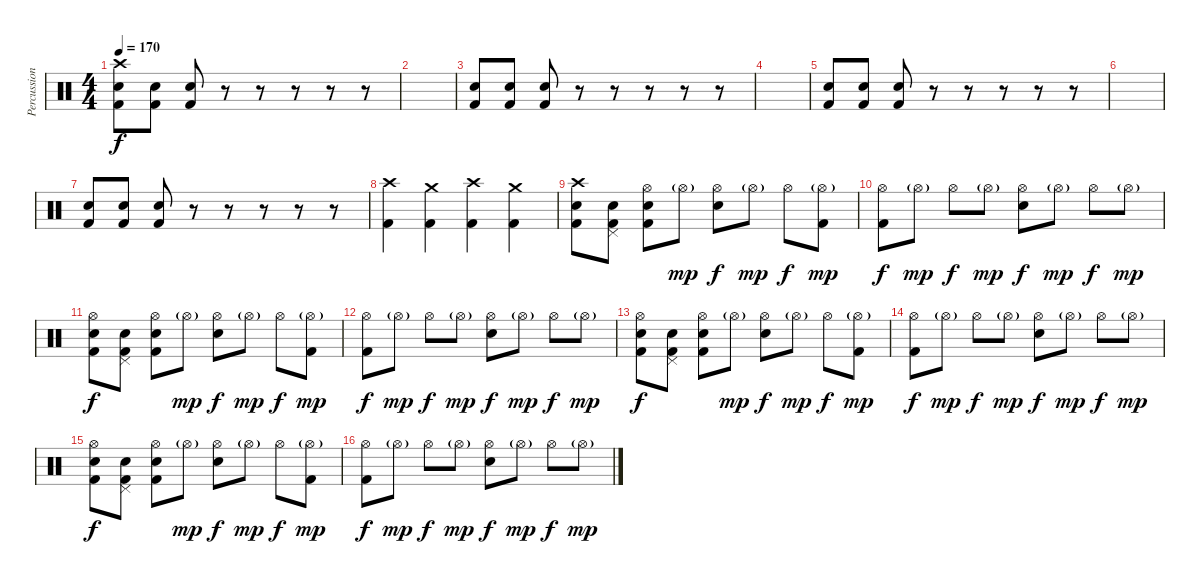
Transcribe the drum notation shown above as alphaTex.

\track ("Percussion" "Percussion") {instrument percussion}
\staff {score}
\articulation defaults
\ts (4 4)
\tempo 170
\clef neutral
\ks c
("Crash high (hit)" "Kick (hit) 2" "Electric Snare (hit)").8{dy f} ("Kick (hit) 2" "Electric Snare (hit)").8 ("Kick (hit) 2" "Electric Snare (hit)").8 r.8 r.8 r.8 r.8 r.8 |
|
("Kick (hit) 2" "Electric Snare (hit)").8 ("Kick (hit) 2" "Electric Snare (hit)").8 ("Kick (hit) 2" "Electric Snare (hit)").8 r.8 r.8 r.8 r.8 r.8 |
|
("Kick (hit) 2" "Electric Snare (hit)").8 ("Kick (hit) 2" "Electric Snare (hit)").8 ("Kick (hit) 2" "Electric Snare (hit)").8 r.8 r.8 r.8 r.8 r.8 |
|
("Kick (hit) 2" "Electric Snare (hit)").8 ("Kick (hit) 2" "Electric Snare (hit)").8 ("Kick (hit) 2" "Electric Snare (hit)").8 r.8 r.8 r.8 r.8 r.8 |
("Crash high (hit)" "Kick (hit) 2").4 ("Crash medium (hit)" "Kick (hit) 2").4 ("Crash high (hit)" "Kick (hit) 2").4 ("Crash medium (hit)" "Kick (hit) 2").4 |
("Crash high (hit)" "Kick (hit) 2" "Electric Snare (hit)").8 ("Pedal Hi-Hat (hit)" "Kick (hit) 2" "Electric Snare (hit)").8 ("Hi-Hat (open)" "Kick (hit) 2" "Electric Snare (hit)").8 "Hi-Hat (open)"{g}.8{dy mp} ("Hi-Hat (open)" "Electric Snare (hit)").8{dy f} "Hi-Hat (open)"{g}.8{dy mp} "Hi-Hat (open)".8{dy f} ("Hi-Hat (open)"{g} "Kick (hit) 2").8{dy mp} |
("Hi-Hat (open)" "Kick (hit) 2").8{dy f} "Hi-Hat (open)"{g}.8{dy mp} "Hi-Hat (open)".8{dy f} "Hi-Hat (open)"{g}.8{dy mp} ("Hi-Hat (open)" "Electric Snare (hit)").8{dy f} "Hi-Hat (open)"{g}.8{dy mp} "Hi-Hat (open)".8{dy f} "Hi-Hat (open)"{g}.8{dy mp} |
("Hi-Hat (open)" "Kick (hit) 2" "Electric Snare (hit)").8{dy f} ("Pedal Hi-Hat (hit)" "Kick (hit) 2" "Electric Snare (hit)").8 ("Hi-Hat (open)" "Kick (hit) 2" "Electric Snare (hit)").8 "Hi-Hat (open)"{g}.8{dy mp} ("Hi-Hat (open)" "Electric Snare (hit)").8{dy f} "Hi-Hat (open)"{g}.8{dy mp} "Hi-Hat (open)".8{dy f} ("Hi-Hat (open)"{g} "Kick (hit) 2").8{dy mp} |
("Hi-Hat (open)" "Kick (hit) 2").8{dy f} "Hi-Hat (open)"{g}.8{dy mp} "Hi-Hat (open)".8{dy f} "Hi-Hat (open)"{g}.8{dy mp} ("Hi-Hat (open)" "Electric Snare (hit)").8{dy f} "Hi-Hat (open)"{g}.8{dy mp} "Hi-Hat (open)".8{dy f} "Hi-Hat (open)"{g}.8{dy mp} |
("Hi-Hat (open)" "Kick (hit) 2" "Electric Snare (hit)").8{dy f} ("Pedal Hi-Hat (hit)" "Kick (hit) 2" "Electric Snare (hit)").8 ("Hi-Hat (open)" "Kick (hit) 2" "Electric Snare (hit)").8 "Hi-Hat (open)"{g}.8{dy mp} ("Hi-Hat (open)" "Electric Snare (hit)").8{dy f} "Hi-Hat (open)"{g}.8{dy mp} "Hi-Hat (open)".8{dy f} ("Hi-Hat (open)"{g} "Kick (hit) 2").8{dy mp} |
("Hi-Hat (open)" "Kick (hit) 2").8{dy f} "Hi-Hat (open)"{g}.8{dy mp} "Hi-Hat (open)".8{dy f} "Hi-Hat (open)"{g}.8{dy mp} ("Hi-Hat (open)" "Electric Snare (hit)").8{dy f} "Hi-Hat (open)"{g}.8{dy mp} "Hi-Hat (open)".8{dy f} "Hi-Hat (open)"{g}.8{dy mp} |
("Hi-Hat (open)" "Kick (hit) 2" "Electric Snare (hit)").8{dy f} ("Pedal Hi-Hat (hit)" "Kick (hit) 2" "Electric Snare (hit)").8 ("Hi-Hat (open)" "Kick (hit) 2" "Electric Snare (hit)").8 "Hi-Hat (open)"{g}.8{dy mp} ("Hi-Hat (open)" "Electric Snare (hit)").8{dy f} "Hi-Hat (open)"{g}.8{dy mp} "Hi-Hat (open)".8{dy f} ("Hi-Hat (open)"{g} "Kick (hit) 2").8{dy mp} |
("Hi-Hat (open)" "Kick (hit) 2").8{dy f} "Hi-Hat (open)"{g}.8{dy mp} "Hi-Hat (open)".8{dy f} "Hi-Hat (open)"{g}.8{dy mp} ("Hi-Hat (open)" "Electric Snare (hit)").8{dy f} "Hi-Hat (open)"{g}.8{dy mp} "Hi-Hat (open)".8{dy f} "Hi-Hat (open)"{g}.8{dy mp}
